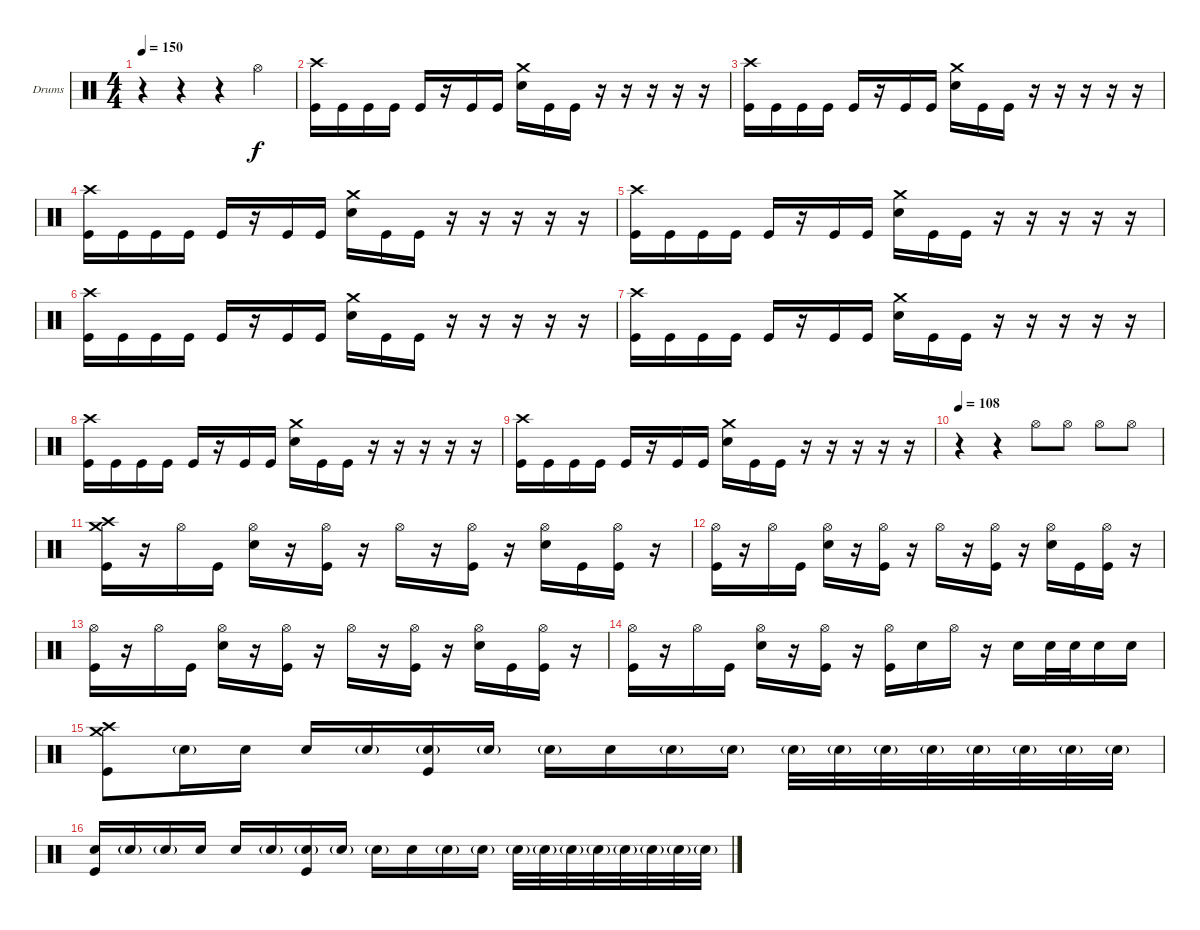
\defaultSystemsLayout 4
\bracketExtendMode groupsimilarinstruments
\firstSystemTrackNameOrientation horizontal
\otherSystemsTrackNameOrientation horizontal
\track ("Drumkit" "Drums") {instrument percussion}
\staff {score}
\articulation defaults
\ts (4 4)
\tempo 150
\clef neutral
\ks c
r.4{dy f} r.4 r.4 "Hi-Hat (open)".4 |
("Kick (hit)" "Crash high (hit)").16 "Kick (hit)".16 "Kick (hit)".16 "Kick (hit)".16 "Kick (hit)".16 r.16 "Kick (hit)".16 "Kick (hit)".16 ("Snare (hit) 2" "Crash medium (hit)").16 "Kick (hit)".16 "Kick (hit)".16 r.16 r.16 r.16 r.16 r.16 |
("Kick (hit)" "Crash high (hit)").16 "Kick (hit)".16 "Kick (hit)".16 "Kick (hit)".16 "Kick (hit)".16 r.16 "Kick (hit)".16 "Kick (hit)".16 ("Snare (hit) 2" "Crash medium (hit)").16 "Kick (hit)".16 "Kick (hit)".16 r.16 r.16 r.16 r.16 r.16 |
("Kick (hit)" "Crash high (hit)").16 "Kick (hit)".16 "Kick (hit)".16 "Kick (hit)".16 "Kick (hit)".16 r.16 "Kick (hit)".16 "Kick (hit)".16 ("Snare (hit) 2" "Crash medium (hit)").16 "Kick (hit)".16 "Kick (hit)".16 r.16 r.16 r.16 r.16 r.16 |
("Kick (hit)" "Crash high (hit)").16 "Kick (hit)".16 "Kick (hit)".16 "Kick (hit)".16 "Kick (hit)".16 r.16 "Kick (hit)".16 "Kick (hit)".16 ("Snare (hit) 2" "Crash medium (hit)").16 "Kick (hit)".16 "Kick (hit)".16 r.16 r.16 r.16 r.16 r.16 |
("Kick (hit)" "Crash high (hit)").16 "Kick (hit)".16 "Kick (hit)".16 "Kick (hit)".16 "Kick (hit)".16 r.16 "Kick (hit)".16 "Kick (hit)".16 ("Snare (hit) 2" "Crash medium (hit)").16 "Kick (hit)".16 "Kick (hit)".16 r.16 r.16 r.16 r.16 r.16 |
("Kick (hit)" "Crash high (hit)").16 "Kick (hit)".16 "Kick (hit)".16 "Kick (hit)".16 "Kick (hit)".16 r.16 "Kick (hit)".16 "Kick (hit)".16 ("Snare (hit) 2" "Crash medium (hit)").16 "Kick (hit)".16 "Kick (hit)".16 r.16 r.16 r.16 r.16 r.16 |
("Kick (hit)" "Crash high (hit)").16 "Kick (hit)".16 "Kick (hit)".16 "Kick (hit)".16 "Kick (hit)".16 r.16 "Kick (hit)".16 "Kick (hit)".16 ("Snare (hit) 2" "Crash medium (hit)").16 "Kick (hit)".16 "Kick (hit)".16 r.16 r.16 r.16 r.16 r.16 |
("Kick (hit)" "Crash high (hit)").16 "Kick (hit)".16 "Kick (hit)".16 "Kick (hit)".16 "Kick (hit)".16 r.16 "Kick (hit)".16 "Kick (hit)".16 ("Snare (hit) 2" "Crash medium (hit)").16 "Kick (hit)".16 "Kick (hit)".16 r.16 r.16 r.16 r.16 r.16 |
\tempo 108
r.4 r.4 "Hi-Hat (open)".8 "Hi-Hat (open)".8 "Hi-Hat (open)".8 "Hi-Hat (open)".8 |
("Crash medium (hit)" "Crash high (hit)" "Kick (hit)").16 r.16 "Hi-Hat (open)".16 "Kick (hit)".16 ("Hi-Hat (open)" "Snare (hit) 2").16 r.16 ("Hi-Hat (open)" "Kick (hit)").16 r.16 "Hi-Hat (open)".16 r.16 ("Hi-Hat (open)" "Kick (hit)").16 r.16 ("Hi-Hat (open)" "Snare (hit) 2").16 "Kick (hit)".16 ("Hi-Hat (open)" "Kick (hit)").16 r.16 |
("Kick (hit)" "Hi-Hat (open)").16 r.16 "Hi-Hat (open)".16 "Kick (hit)".16 ("Hi-Hat (open)" "Snare (hit) 2").16 r.16 ("Hi-Hat (open)" "Kick (hit)").16 r.16 "Hi-Hat (open)".16 r.16 ("Hi-Hat (open)" "Kick (hit)").16 r.16 ("Hi-Hat (open)" "Snare (hit) 2").16 "Kick (hit)".16 ("Hi-Hat (open)" "Kick (hit)").16 r.16 |
("Kick (hit)" "Hi-Hat (open)").16 r.16 "Hi-Hat (open)".16 "Kick (hit)".16 ("Hi-Hat (open)" "Snare (hit) 2").16 r.16 ("Hi-Hat (open)" "Kick (hit)").16 r.16 "Hi-Hat (open)".16 r.16 ("Hi-Hat (open)" "Kick (hit)").16 r.16 ("Hi-Hat (open)" "Snare (hit) 2").16 "Kick (hit)".16 ("Hi-Hat (open)" "Kick (hit)").16 r.16 |
("Kick (hit)" "Hi-Hat (open)").16 r.16 "Hi-Hat (open)".16 "Kick (hit)".16 ("Hi-Hat (open)" "Snare (hit) 2").16 r.16 ("Hi-Hat (open)" "Kick (hit)").16 r.16 ("Kick (hit)" "Hi-Hat (open)").16 "Snare (hit) 2".16 "Hi-Hat (open)".16 r.16 "Snare (hit) 2".16 "Snare (hit) 2".32 "Snare (hit) 2".32 "Snare (hit) 2".16 "Snare (hit) 2".16 |
("Kick (hit)" "Crash medium (hit)" "Crash high (hit)").8 "Snare (hit) 2"{g}.16 "Snare (hit) 2".16 "Snare (hit) 2".16 "Snare (hit) 2"{g}.16 ("Snare (hit) 2"{g} "Kick (hit)").16 "Snare (hit) 2"{g}.16 "Snare (hit) 2"{g}.16 "Snare (hit) 2".16 "Snare (hit) 2"{g}.16 "Snare (hit) 2"{g}.16 "Snare (hit) 2"{g}.32 "Snare (hit) 2"{g}.32 "Snare (hit) 2"{g}.32 "Snare (hit) 2"{g}.32 "Snare (hit) 2"{g}.32 "Snare (hit) 2"{g}.32 "Snare (hit) 2"{g}.32 "Snare (hit) 2"{g}.32 |
("Snare (hit) 2" "Kick (hit)").16 "Snare (hit) 2"{g}.16 "Snare (hit) 2"{g}.16 "Snare (hit) 2".16 "Snare (hit) 2".16 "Snare (hit) 2"{g}.16 ("Snare (hit) 2"{g} "Kick (hit)").16 "Snare (hit) 2"{g}.16 "Snare (hit) 2"{g}.16 "Snare (hit) 2".16 "Snare (hit) 2"{g}.16 "Snare (hit) 2"{g}.16 "Snare (hit) 2"{g}.32 "Snare (hit) 2"{g}.32 "Snare (hit) 2"{g}.32 "Snare (hit) 2"{g}.32 "Snare (hit) 2"{g}.32 "Snare (hit) 2"{g}.32 "Snare (hit) 2"{g}.32 "Snare (hit) 2"{g}.32
